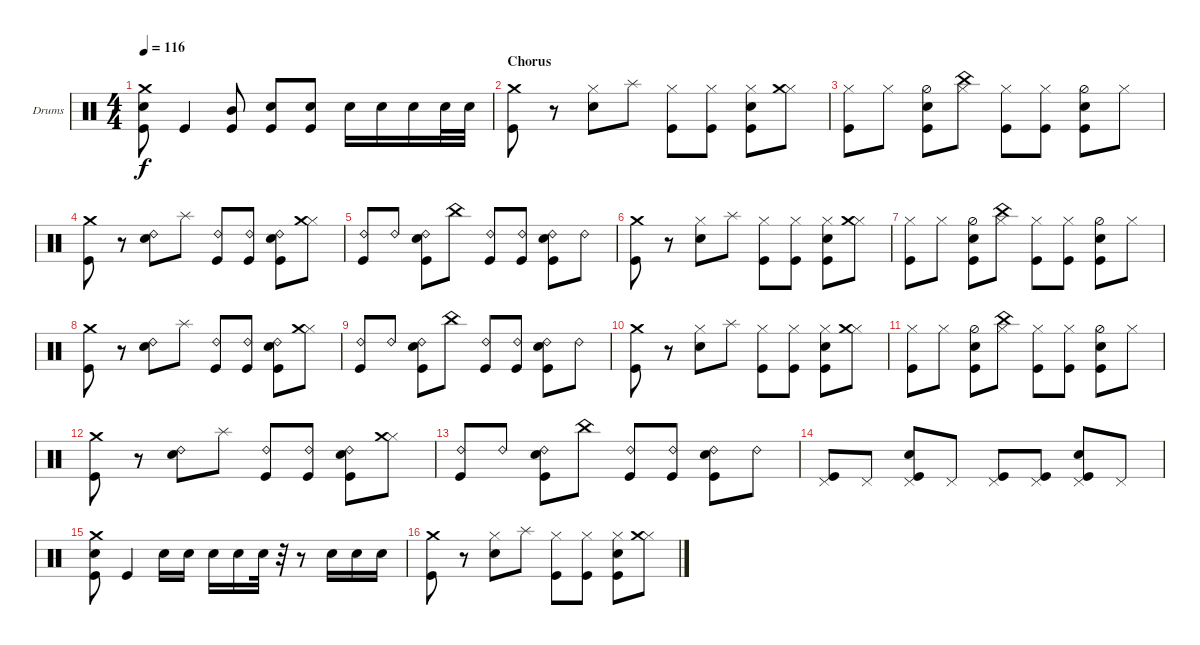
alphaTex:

\bracketExtendMode groupsimilarinstruments
\firstSystemTrackNameOrientation horizontal
\otherSystemsTrackNameOrientation horizontal
\track ("Mick Brown" "Drums") {instrument percussion}
\staff {score}
\articulation defaults
\ts (4 4)
\tempo 116
\clef neutral
\ks c
("Snare (hit) 2" "Kick (hit)" "Crash medium (hit)").8{dy f} "Kick (hit)".4 ("Mid Tom (hit)" "Kick (hit)").8 ("Snare (hit) 2" "Kick (hit)").8 ("Snare (hit) 2" "Kick (hit)").8 "Snare (hit) 2".16 "Snare (hit) 2".16 "Snare (hit) 2".16 "Snare (hit) 2".32 "Snare (hit) 2".32 |
\section ("" "Chorus")
("Kick (hit)" "Crash medium (hit)").8 r.8 ("Snare (hit) 2" "Hi-Hat (closed)").8 "Splash (hit)".8 ("Kick (hit)" "Hi-Hat (closed)").8 ("Kick (hit)" "Hi-Hat (closed)").8 ("Snare (hit) 2" "Kick (hit)" "Hi-Hat (closed)").8 ("Hi-Hat (closed)" "Crash medium (hit)").8 |
("Kick (hit)" "Hi-Hat (closed)").8 "Hi-Hat (closed)".8 ("Snare (hit) 2" "Kick (hit)" "Hi-Hat (half)").8 ("Hi-Hat (closed)" "China (hit)").8 ("Kick (hit)" "Hi-Hat (closed)").8 ("Kick (hit)" "Hi-Hat (closed)").8 ("Snare (hit) 2" "Kick (hit)" "Hi-Hat (half)").8 "Hi-Hat (closed)".8 |
("Kick (hit)" "Crash medium (hit)").8 r.8 ("Snare (hit) 2" "Ride (bell) 2").8 "Splash (hit)".8 ("Kick (hit)" "Ride (bell) 2").8 ("Kick (hit)" "Ride (bell) 2").8 ("Snare (hit) 2" "Kick (hit)" "Ride (bell) 2").8 ("Hi-Hat (closed)" "Crash medium (hit)").8 |
("Kick (hit)" "Ride (bell) 2").8 "Ride (bell) 2".8 ("Snare (hit) 2" "Kick (hit)" "Ride (bell) 2").8 "China (hit)".8 ("Kick (hit)" "Ride (bell) 2").8 ("Kick (hit)" "Ride (bell) 2").8 ("Snare (hit) 2" "Kick (hit)" "Ride (bell) 2").8 "Ride (bell) 2".8 |
("Kick (hit)" "Crash medium (hit)").8 r.8 ("Snare (hit) 2" "Hi-Hat (closed)").8 "Splash (hit)".8 ("Kick (hit)" "Hi-Hat (closed)").8 ("Kick (hit)" "Hi-Hat (closed)").8 ("Snare (hit) 2" "Kick (hit)" "Hi-Hat (closed)").8 ("Hi-Hat (closed)" "Crash medium (hit)").8 |
("Kick (hit)" "Hi-Hat (closed)").8 "Hi-Hat (closed)".8 ("Snare (hit) 2" "Kick (hit)" "Hi-Hat (half)").8 ("Hi-Hat (closed)" "China (hit)").8 ("Kick (hit)" "Hi-Hat (closed)").8 ("Kick (hit)" "Hi-Hat (closed)").8 ("Snare (hit) 2" "Kick (hit)" "Hi-Hat (half)").8 "Hi-Hat (closed)".8 |
("Kick (hit)" "Crash medium (hit)").8 r.8 ("Snare (hit) 2" "Ride (bell) 2").8 "Splash (hit)".8 ("Kick (hit)" "Ride (bell) 2").8 ("Kick (hit)" "Ride (bell) 2").8 ("Snare (hit) 2" "Kick (hit)" "Ride (bell) 2").8 ("Hi-Hat (closed)" "Crash medium (hit)").8 |
("Kick (hit)" "Ride (bell) 2").8 "Ride (bell) 2".8 ("Snare (hit) 2" "Kick (hit)" "Ride (bell) 2").8 "China (hit)".8 ("Kick (hit)" "Ride (bell) 2").8 ("Kick (hit)" "Ride (bell) 2").8 ("Snare (hit) 2" "Kick (hit)" "Ride (bell) 2").8 "Ride (bell) 2".8 |
("Kick (hit)" "Crash medium (hit)").8 r.8 ("Snare (hit) 2" "Hi-Hat (closed)").8 "Splash (hit)".8 ("Kick (hit)" "Hi-Hat (closed)").8 ("Kick (hit)" "Hi-Hat (closed)").8 ("Snare (hit) 2" "Kick (hit)" "Hi-Hat (closed)").8 ("Hi-Hat (closed)" "Crash medium (hit)").8 |
("Kick (hit)" "Hi-Hat (closed)").8 "Hi-Hat (closed)".8 ("Snare (hit) 2" "Kick (hit)" "Hi-Hat (half)").8 ("Hi-Hat (closed)" "China (hit)").8 ("Kick (hit)" "Hi-Hat (closed)").8 ("Kick (hit)" "Hi-Hat (closed)").8 ("Snare (hit) 2" "Kick (hit)" "Hi-Hat (half)").8 "Hi-Hat (closed)".8 |
("Kick (hit)" "Crash medium (hit)").8 r.8 ("Snare (hit) 2" "Ride (bell) 2").8 "Splash (hit)".8 ("Kick (hit)" "Ride (bell) 2").8 ("Kick (hit)" "Ride (bell) 2").8 ("Snare (hit) 2" "Kick (hit)" "Ride (bell) 2").8 ("Hi-Hat (closed)" "Crash medium (hit)").8 |
("Kick (hit)" "Ride (bell) 2").8 "Ride (bell) 2".8 ("Snare (hit) 2" "Kick (hit)" "Ride (bell) 2").8 "China (hit)".8 ("Kick (hit)" "Ride (bell) 2").8 ("Kick (hit)" "Ride (bell) 2").8 ("Snare (hit) 2" "Kick (hit)" "Ride (bell) 2").8 "Ride (bell) 2".8 |
("Pedal Hi-Hat (hit)" "Kick (hit)").8 "Pedal Hi-Hat (hit)".8 ("Pedal Hi-Hat (hit)" "Snare (hit) 2" "Kick (hit)").8 "Pedal Hi-Hat (hit)".8 ("Pedal Hi-Hat (hit)" "Kick (hit)").8 ("Pedal Hi-Hat (hit)" "Kick (hit)").8 ("Pedal Hi-Hat (hit)" "Snare (hit) 2" "Kick (hit)").8 "Pedal Hi-Hat (hit)".8 |
("Snare (hit) 2" "Kick (hit)" "Crash medium (hit)").8 "Kick (hit)".4 "Snare (hit) 2".16 "Snare (hit) 2".16 "Snare (hit) 2".16 "Snare (hit) 2".16 "Snare (hit) 2".32 r.32 r.8 "Snare (hit) 2".16 "Snare (hit) 2".16 "Snare (hit) 2".16 |
("Kick (hit)" "Crash medium (hit)").8 r.8 ("Snare (hit) 2" "Hi-Hat (closed)").8 "Splash (hit)".8 ("Kick (hit)" "Hi-Hat (closed)").8 ("Kick (hit)" "Hi-Hat (closed)").8 ("Snare (hit) 2" "Kick (hit)" "Hi-Hat (closed)").8 ("Hi-Hat (closed)" "Crash medium (hit)").8
